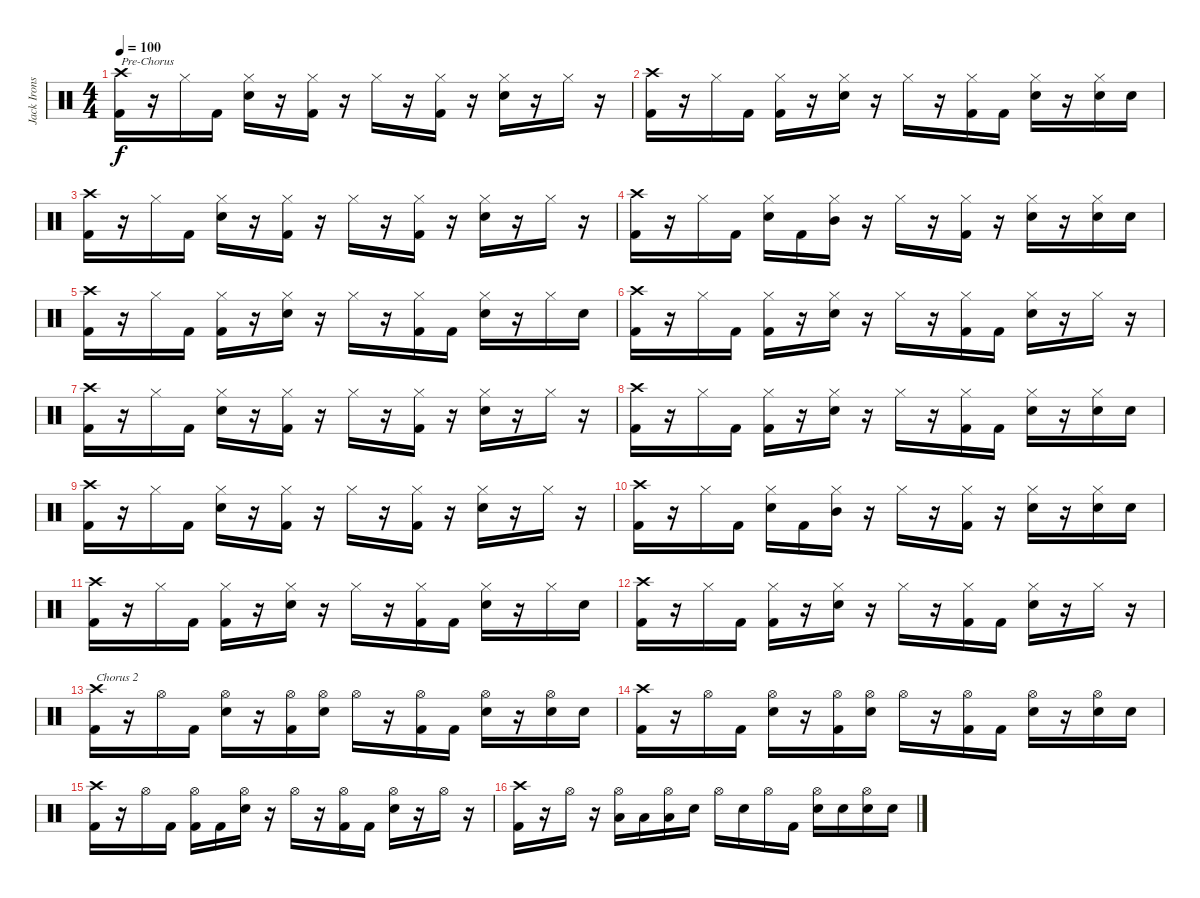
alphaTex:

\track ("Jack Irons" "Jack Irons") {instrument percussion}
\staff {score}
\articulation defaults
\ts (4 4)
\tempo 100
\clef neutral
\ks c
("Crash high (hit)" "Kick (hit) 2").16{txt "Pre-Chorus" dy f} r.16 "Hi-Hat (closed)".16 "Kick (hit) 2".16 ("Hi-Hat (closed)" "Snare (hit) 2").16 r.16 ("Hi-Hat (closed)" "Kick (hit) 2").16 r.16 "Hi-Hat (closed)".16 r.16 ("Hi-Hat (closed)" "Kick (hit) 2").16 r.16 ("Hi-Hat (closed)" "Snare (hit) 2").16 r.16 "Hi-Hat (closed)".16 r.16 |
("Crash high (hit)" "Kick (hit) 2").16 r.16 "Hi-Hat (closed)".16 "Kick (hit) 2".16 ("Hi-Hat (closed)" "Kick (hit) 2").16 r.16 ("Hi-Hat (closed)" "Snare (hit) 2").16 r.16 "Hi-Hat (closed)".16 r.16 ("Hi-Hat (closed)" "Kick (hit) 2").16 "Kick (hit) 2".16 ("Hi-Hat (closed)" "Snare (hit) 2").16 r.16 ("Hi-Hat (closed)" "Snare (hit) 2").16 "Snare (hit) 2".16 |
("Crash high (hit)" "Kick (hit) 2").16 r.16 "Hi-Hat (closed)".16 "Kick (hit) 2".16 ("Hi-Hat (closed)" "Snare (hit) 2").16 r.16 ("Hi-Hat (closed)" "Kick (hit) 2").16 r.16 "Hi-Hat (closed)".16 r.16 ("Hi-Hat (closed)" "Kick (hit) 2").16 r.16 ("Hi-Hat (closed)" "Snare (hit) 2").16 r.16 "Hi-Hat (closed)".16 r.16 |
("Crash high (hit)" "Kick (hit) 2").16 r.16 "Hi-Hat (closed)".16 "Kick (hit) 2".16 ("Hi-Hat (closed)" "Snare (hit) 2").16 "Kick (hit) 2".16 ("Hi-Hat (closed)" "Mid Tom (hit)").16 r.16 "Hi-Hat (closed)".16 r.16 ("Hi-Hat (closed)" "Kick (hit) 2").16 r.16 ("Hi-Hat (closed)" "Snare (hit) 2").16 r.16 ("Hi-Hat (closed)" "Snare (hit) 2").16 "Snare (hit) 2".16 |
("Crash high (hit)" "Kick (hit) 2").16 r.16 "Hi-Hat (closed)".16 "Kick (hit) 2".16 ("Hi-Hat (closed)" "Kick (hit) 2").16 r.16 ("Hi-Hat (closed)" "Snare (hit) 2").16 r.16 "Hi-Hat (closed)".16 r.16 ("Hi-Hat (closed)" "Kick (hit) 2").16 "Kick (hit) 2".16 ("Hi-Hat (closed)" "Snare (hit) 2").16 r.16 "Hi-Hat (closed)".16 "Snare (hit) 2".16 |
("Crash high (hit)" "Kick (hit) 2").16 r.16 "Hi-Hat (closed)".16 "Kick (hit) 2".16 ("Hi-Hat (closed)" "Kick (hit) 2").16 r.16 ("Hi-Hat (closed)" "Snare (hit) 2").16 r.16 "Hi-Hat (closed)".16 r.16 ("Hi-Hat (closed)" "Kick (hit) 2").16 "Kick (hit) 2".16 ("Hi-Hat (closed)" "Snare (hit) 2").16 r.16 "Hi-Hat (closed)".16 r.16 |
("Crash high (hit)" "Kick (hit) 2").16 r.16 "Hi-Hat (closed)".16 "Kick (hit) 2".16 ("Hi-Hat (closed)" "Snare (hit) 2").16 r.16 ("Hi-Hat (closed)" "Kick (hit) 2").16 r.16 "Hi-Hat (closed)".16 r.16 ("Hi-Hat (closed)" "Kick (hit) 2").16 r.16 ("Hi-Hat (closed)" "Snare (hit) 2").16 r.16 "Hi-Hat (closed)".16 r.16 |
("Crash high (hit)" "Kick (hit) 2").16 r.16 "Hi-Hat (closed)".16 "Kick (hit) 2".16 ("Hi-Hat (closed)" "Kick (hit) 2").16 r.16 ("Hi-Hat (closed)" "Snare (hit) 2").16 r.16 "Hi-Hat (closed)".16 r.16 ("Hi-Hat (closed)" "Kick (hit) 2").16 "Kick (hit) 2".16 ("Hi-Hat (closed)" "Snare (hit) 2").16 r.16 ("Hi-Hat (closed)" "Snare (hit) 2").16 "Snare (hit) 2".16 |
("Crash high (hit)" "Kick (hit) 2").16 r.16 "Hi-Hat (closed)".16 "Kick (hit) 2".16 ("Hi-Hat (closed)" "Snare (hit) 2").16 r.16 ("Hi-Hat (closed)" "Kick (hit) 2").16 r.16 "Hi-Hat (closed)".16 r.16 ("Hi-Hat (closed)" "Kick (hit) 2").16 r.16 ("Hi-Hat (closed)" "Snare (hit) 2").16 r.16 "Hi-Hat (closed)".16 r.16 |
("Crash high (hit)" "Kick (hit) 2").16 r.16 "Hi-Hat (closed)".16 "Kick (hit) 2".16 ("Hi-Hat (closed)" "Snare (hit) 2").16 "Kick (hit) 2".16 ("Hi-Hat (closed)" "Mid Tom (hit)").16 r.16 "Hi-Hat (closed)".16 r.16 ("Hi-Hat (closed)" "Kick (hit) 2").16 r.16 ("Hi-Hat (closed)" "Snare (hit) 2").16 r.16 ("Hi-Hat (closed)" "Snare (hit) 2").16 "Snare (hit) 2".16 |
("Crash high (hit)" "Kick (hit) 2").16 r.16 "Hi-Hat (closed)".16 "Kick (hit) 2".16 ("Hi-Hat (closed)" "Kick (hit) 2").16 r.16 ("Hi-Hat (closed)" "Snare (hit) 2").16 r.16 "Hi-Hat (closed)".16 r.16 ("Hi-Hat (closed)" "Kick (hit) 2").16 "Kick (hit) 2".16 ("Hi-Hat (closed)" "Snare (hit) 2").16 r.16 "Hi-Hat (closed)".16 "Snare (hit) 2".16 |
("Crash high (hit)" "Kick (hit) 2").16 r.16 "Hi-Hat (closed)".16 "Kick (hit) 2".16 ("Hi-Hat (closed)" "Kick (hit) 2").16 r.16 ("Hi-Hat (closed)" "Snare (hit) 2").16 r.16 "Hi-Hat (closed)".16 r.16 ("Hi-Hat (closed)" "Kick (hit) 2").16 "Kick (hit) 2".16 ("Hi-Hat (closed)" "Snare (hit) 2").16 r.16 "Hi-Hat (closed)".16 r.16 |
("Crash high (hit)" "Kick (hit) 2").16{txt "Chorus 2"} r.16 "Hi-Hat (open)".16 "Kick (hit) 2".16 ("Hi-Hat (open)" "Snare (hit) 2").16 r.16 ("Hi-Hat (open)" "Kick (hit) 2").16 ("Hi-Hat (open)" "Snare (hit) 2").16 "Hi-Hat (open)".16 r.16 ("Hi-Hat (open)" "Kick (hit) 2").16 "Kick (hit) 2".16 ("Hi-Hat (open)" "Snare (hit) 2").16 r.16 ("Hi-Hat (open)" "Snare (hit) 2").16 "Snare (hit) 2".16 |
("Crash high (hit)" "Kick (hit) 2").16 r.16 "Hi-Hat (open)".16 "Kick (hit) 2".16 ("Hi-Hat (open)" "Snare (hit) 2").16 r.16 ("Hi-Hat (open)" "Kick (hit) 2").16 ("Hi-Hat (open)" "Snare (hit) 2").16 "Hi-Hat (open)".16 r.16 ("Hi-Hat (open)" "Kick (hit) 2").16 "Kick (hit) 2".16 ("Hi-Hat (open)" "Snare (hit) 2").16 r.16 ("Hi-Hat (open)" "Snare (hit) 2").16 "Snare (hit) 2".16 |
("Crash high (hit)" "Kick (hit) 2").16 r.16 "Hi-Hat (open)".16 "Kick (hit) 2".16 ("Hi-Hat (open)" "Kick (hit) 2").16 "Kick (hit) 2".16 ("Hi-Hat (open)" "Snare (hit) 2").16 r.16 "Hi-Hat (open)".16 r.16 ("Hi-Hat (open)" "Kick (hit) 2").16 "Kick (hit) 2".16 ("Hi-Hat (open)" "Snare (hit) 2").16 r.16 "Hi-Hat (open)".16 r.16 |
("Crash high (hit)" "Kick (hit) 2").16 r.16 "Hi-Hat (open)".16 r.16 ("Hi-Hat (open)" "Low Floor Tom (hit)").16 "Low Floor Tom (hit)".16 ("Hi-Hat (open)" "Low Floor Tom (hit)").16 "Snare (hit) 2".16 "Hi-Hat (open)".16 "Snare (hit) 2".16 "Hi-Hat (open)".16 "Kick (hit) 2".16 ("Hi-Hat (open)" "Snare (hit) 2").16 "Snare (hit) 2".16 ("Hi-Hat (open)" "Snare (hit) 2").16 "Snare (hit) 2".16
